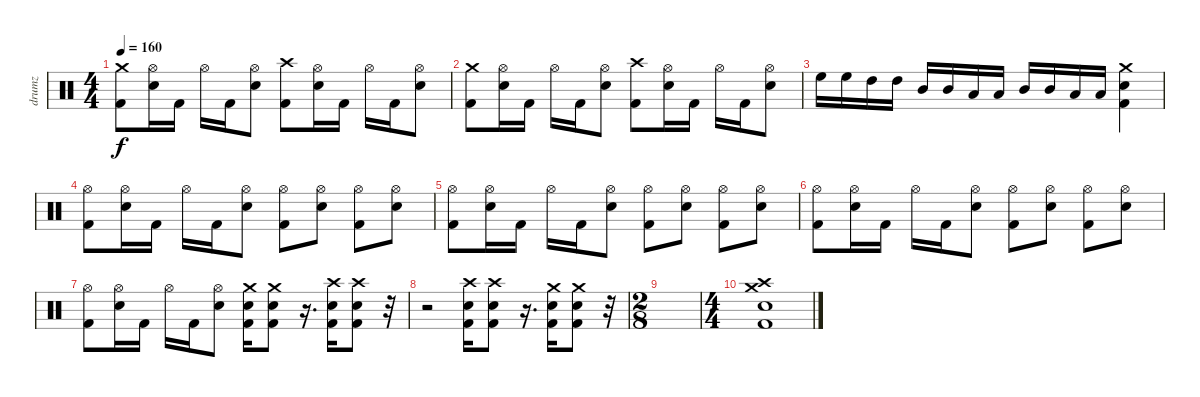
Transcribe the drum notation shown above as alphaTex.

\track ("drumz" "drumz") {instrument percussion}
\staff {score}
\articulation defaults
\ts (4 4)
\tempo 160
\clef neutral
\ks c
("Crash medium (hit)" "Kick (hit) 2").8{dy f} ("Hi-Hat (open)" "Electric Snare (hit)").16 "Kick (hit) 2".16 "Hi-Hat (open)".16 "Kick (hit) 2".16 ("Hi-Hat (open)" "Electric Snare (hit)").8 ("Crash high (hit)" "Kick (hit) 2").8 ("Hi-Hat (open)" "Electric Snare (hit)").16 "Kick (hit) 2".16 "Hi-Hat (open)".16 "Kick (hit) 2".16 ("Hi-Hat (open)" "Electric Snare (hit)").8 |
("Crash medium (hit)" "Kick (hit) 2").8 ("Hi-Hat (open)" "Electric Snare (hit)").16 "Kick (hit) 2".16 "Hi-Hat (open)".16 "Kick (hit) 2".16 ("Hi-Hat (open)" "Electric Snare (hit)").8 ("Crash high (hit)" "Kick (hit) 2").8 ("Hi-Hat (open)" "Electric Snare (hit)").16 "Kick (hit) 2".16 "Hi-Hat (open)".16 "Kick (hit) 2".16 ("Hi-Hat (open)" "Electric Snare (hit)").8 |
"High Floor Tom (hit)".16 "High Floor Tom (hit)".16 "High Tom (hit)".16 "High Tom (hit)".16 "Mid Tom (hit)".16 "Mid Tom (hit)".16 "Low Tom (hit)".16 "Low Tom (hit)".16 "Mid Tom (hit)".16 "Mid Tom (hit)".16 "Low Tom (hit)".16 "Low Tom (hit)".16 ("Crash medium (hit)" "Electric Snare (hit)" "Kick (hit) 2").4 |
("Hi-Hat (open)" "Kick (hit) 2").8 ("Hi-Hat (open)" "Electric Snare (hit)").16 "Kick (hit) 2".16 "Hi-Hat (open)".16 "Kick (hit) 2".16 ("Hi-Hat (open)" "Electric Snare (hit)").8 ("Hi-Hat (open)" "Kick (hit) 2").8 ("Hi-Hat (open)" "Electric Snare (hit)").8 ("Hi-Hat (open)" "Kick (hit) 2").8 ("Hi-Hat (open)" "Electric Snare (hit)").8 |
("Hi-Hat (open)" "Kick (hit) 2").8 ("Hi-Hat (open)" "Electric Snare (hit)").16 "Kick (hit) 2".16 "Hi-Hat (open)".16 "Kick (hit) 2".16 ("Hi-Hat (open)" "Electric Snare (hit)").8 ("Hi-Hat (open)" "Kick (hit) 2").8 ("Hi-Hat (open)" "Electric Snare (hit)").8 ("Hi-Hat (open)" "Kick (hit) 2").8 ("Hi-Hat (open)" "Electric Snare (hit)").8 |
("Hi-Hat (open)" "Kick (hit) 2").8 ("Hi-Hat (open)" "Electric Snare (hit)").16 "Kick (hit) 2".16 "Hi-Hat (open)".16 "Kick (hit) 2".16 ("Hi-Hat (open)" "Electric Snare (hit)").8 ("Hi-Hat (open)" "Kick (hit) 2").8 ("Hi-Hat (open)" "Electric Snare (hit)").8 ("Hi-Hat (open)" "Kick (hit) 2").8 ("Hi-Hat (open)" "Electric Snare (hit)").8 |
("Hi-Hat (open)" "Kick (hit) 2").8 ("Hi-Hat (open)" "Electric Snare (hit)").16 "Kick (hit) 2".16 "Hi-Hat (open)".16 "Kick (hit) 2".16 ("Hi-Hat (open)" "Electric Snare (hit)").8 ("Crash medium (hit)" "Electric Snare (hit)" "Kick (hit) 2").16 ("Crash medium (hit)" "Electric Snare (hit)" "Kick (hit) 2").8 r.16{d} ("Crash high (hit)" "Electric Snare (hit)" "Kick (hit) 2").16 ("Crash high (hit)" "Electric Snare (hit)" "Kick (hit) 2").8 r.32 |
r.2 ("Crash high (hit)" "Electric Snare (hit)" "Kick (hit) 2").16 ("Crash high (hit)" "Electric Snare (hit)" "Kick (hit) 2").8 r.16{d} ("Crash medium (hit)" "Electric Snare (hit)" "Kick (hit) 2").16 ("Crash medium (hit)" "Electric Snare (hit)" "Kick (hit) 2").8 r.32 |
\ts (2 8)
|
\ts (4 4)
("Crash medium (hit)" "Crash high (hit)" "Electric Snare (hit)" "Kick (hit) 2").1
